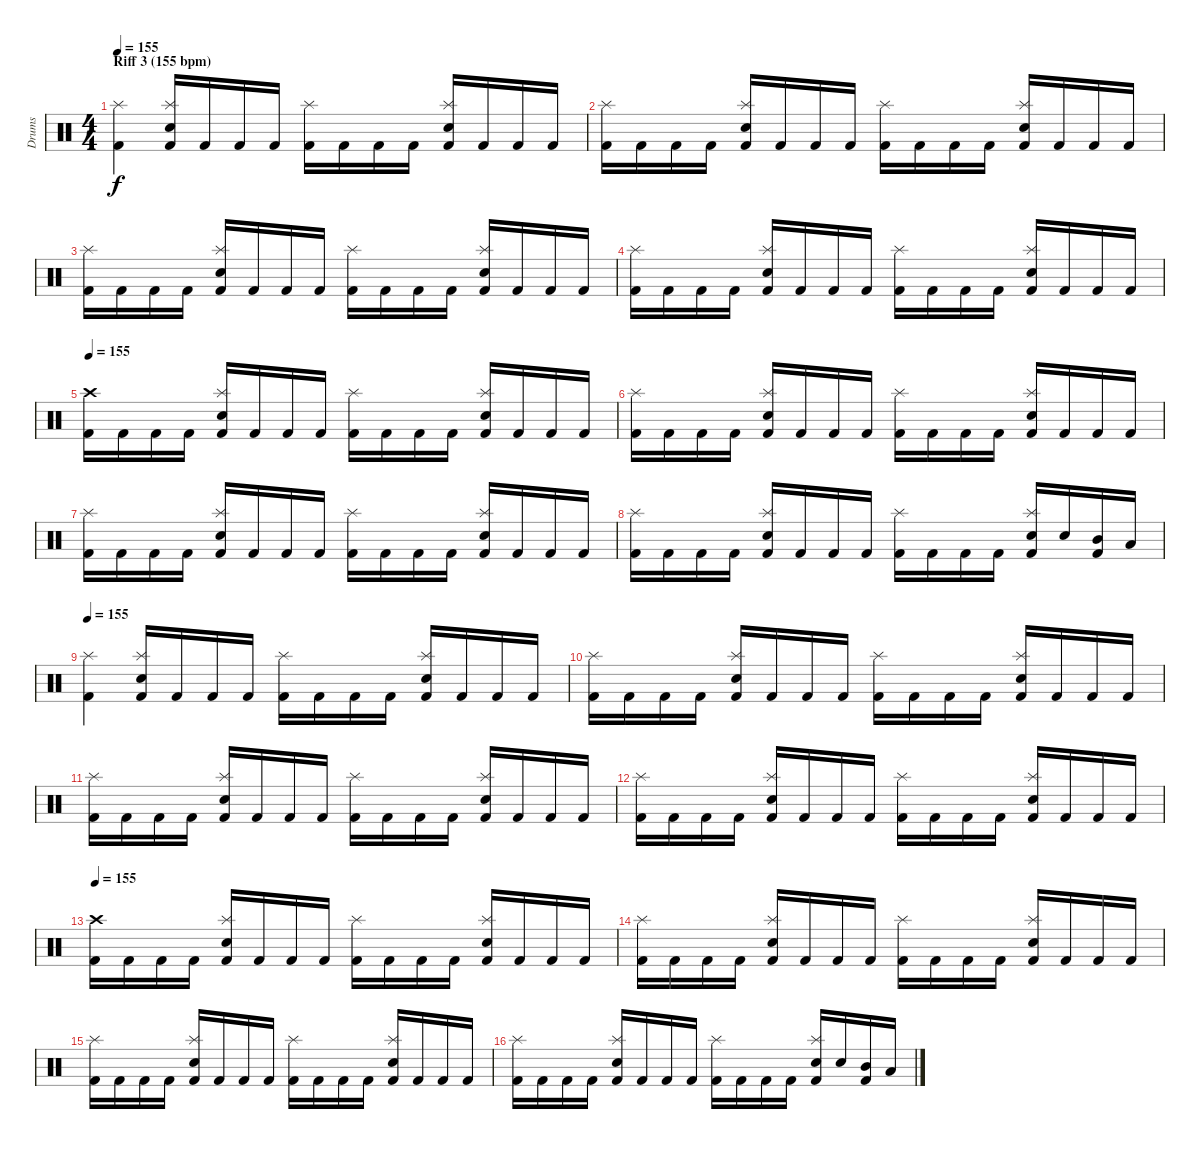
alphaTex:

\track ("Drums" "Drums") {instrument percussion}
\staff {score}
\articulation defaults
\ts (4 4)
\section ("" "Riff 3 (155 bpm)")
\tempo 155
\clef neutral
\ks c
("Kick (hit) 2" "Splash (hit)").4{dy f} ("Kick (hit) 2" "Snare (hit) 2" "Splash (hit)").16 "Kick (hit) 2".16 "Kick (hit) 2".16 "Kick (hit) 2".16 ("Kick (hit) 2" "Splash (hit)").16 "Kick (hit) 2".16 "Kick (hit) 2".16 "Kick (hit) 2".16 ("Kick (hit) 2" "Snare (hit) 2" "Splash (hit)").16 "Kick (hit) 2".16 "Kick (hit) 2".16 "Kick (hit) 2".16 |
("Kick (hit) 2" "Splash (hit)").16 "Kick (hit) 2".16 "Kick (hit) 2".16 "Kick (hit) 2".16 ("Kick (hit) 2" "Snare (hit) 2" "Splash (hit)").16 "Kick (hit) 2".16 "Kick (hit) 2".16 "Kick (hit) 2".16 ("Kick (hit) 2" "Splash (hit)").16 "Kick (hit) 2".16 "Kick (hit) 2".16 "Kick (hit) 2".16 ("Kick (hit) 2" "Snare (hit) 2" "Splash (hit)").16 "Kick (hit) 2".16 "Kick (hit) 2".16 "Kick (hit) 2".16 |
("Kick (hit) 2" "Splash (hit)").16 "Kick (hit) 2".16 "Kick (hit) 2".16 "Kick (hit) 2".16 ("Kick (hit) 2" "Snare (hit) 2" "Splash (hit)").16 "Kick (hit) 2".16 "Kick (hit) 2".16 "Kick (hit) 2".16 ("Kick (hit) 2" "Splash (hit)").16 "Kick (hit) 2".16 "Kick (hit) 2".16 "Kick (hit) 2".16 ("Kick (hit) 2" "Snare (hit) 2" "Splash (hit)").16 "Kick (hit) 2".16 "Kick (hit) 2".16 "Kick (hit) 2".16 |
("Kick (hit) 2" "Splash (hit)").16 "Kick (hit) 2".16 "Kick (hit) 2".16 "Kick (hit) 2".16 ("Kick (hit) 2" "Snare (hit) 2" "Splash (hit)").16 "Kick (hit) 2".16 "Kick (hit) 2".16 "Kick (hit) 2".16 ("Kick (hit) 2" "Splash (hit)").16 "Kick (hit) 2".16 "Kick (hit) 2".16 "Kick (hit) 2".16 ("Kick (hit) 2" "Snare (hit) 2" "Splash (hit)").16 "Kick (hit) 2".16 "Kick (hit) 2".16 "Kick (hit) 2".16 |
\tempo 155
("Kick (hit) 2" "Crash high (hit)").16 "Kick (hit) 2".16 "Kick (hit) 2".16 "Kick (hit) 2".16 ("Kick (hit) 2" "Snare (hit) 2" "Splash (hit)").16 "Kick (hit) 2".16 "Kick (hit) 2".16 "Kick (hit) 2".16 ("Kick (hit) 2" "Splash (hit)").16 "Kick (hit) 2".16 "Kick (hit) 2".16 "Kick (hit) 2".16 ("Kick (hit) 2" "Snare (hit) 2" "Splash (hit)").16 "Kick (hit) 2".16 "Kick (hit) 2".16 "Kick (hit) 2".16 |
("Kick (hit) 2" "Splash (hit)").16 "Kick (hit) 2".16 "Kick (hit) 2".16 "Kick (hit) 2".16 ("Kick (hit) 2" "Snare (hit) 2" "Splash (hit)").16 "Kick (hit) 2".16 "Kick (hit) 2".16 "Kick (hit) 2".16 ("Kick (hit) 2" "Splash (hit)").16 "Kick (hit) 2".16 "Kick (hit) 2".16 "Kick (hit) 2".16 ("Kick (hit) 2" "Snare (hit) 2" "Splash (hit)").16 "Kick (hit) 2".16 "Kick (hit) 2".16 "Kick (hit) 2".16 |
("Kick (hit) 2" "Splash (hit)").16 "Kick (hit) 2".16 "Kick (hit) 2".16 "Kick (hit) 2".16 ("Kick (hit) 2" "Snare (hit) 2" "Splash (hit)").16 "Kick (hit) 2".16 "Kick (hit) 2".16 "Kick (hit) 2".16 ("Kick (hit) 2" "Splash (hit)").16 "Kick (hit) 2".16 "Kick (hit) 2".16 "Kick (hit) 2".16 ("Kick (hit) 2" "Snare (hit) 2" "Splash (hit)").16 "Kick (hit) 2".16 "Kick (hit) 2".16 "Kick (hit) 2".16 |
("Kick (hit) 2" "Splash (hit)").16 "Kick (hit) 2".16 "Kick (hit) 2".16 "Kick (hit) 2".16 ("Kick (hit) 2" "Snare (hit) 2" "Splash (hit)").16 "Kick (hit) 2".16 "Kick (hit) 2".16 "Kick (hit) 2".16 ("Kick (hit) 2" "Splash (hit)").16 "Kick (hit) 2".16 "Kick (hit) 2".16 "Kick (hit) 2".16 ("Kick (hit) 2" "Snare (hit) 2" "Splash (hit)").16 "Snare (hit) 2".16 ("Kick (hit) 2" "Mid Tom (hit)").16 "Low Tom (hit)".16 |
\tempo 155
("Kick (hit) 2" "Splash (hit)").4 ("Kick (hit) 2" "Snare (hit) 2" "Splash (hit)").16 "Kick (hit) 2".16 "Kick (hit) 2".16 "Kick (hit) 2".16 ("Kick (hit) 2" "Splash (hit)").16 "Kick (hit) 2".16 "Kick (hit) 2".16 "Kick (hit) 2".16 ("Kick (hit) 2" "Snare (hit) 2" "Splash (hit)").16 "Kick (hit) 2".16 "Kick (hit) 2".16 "Kick (hit) 2".16 |
("Kick (hit) 2" "Splash (hit)").16 "Kick (hit) 2".16 "Kick (hit) 2".16 "Kick (hit) 2".16 ("Kick (hit) 2" "Snare (hit) 2" "Splash (hit)").16 "Kick (hit) 2".16 "Kick (hit) 2".16 "Kick (hit) 2".16 ("Kick (hit) 2" "Splash (hit)").16 "Kick (hit) 2".16 "Kick (hit) 2".16 "Kick (hit) 2".16 ("Kick (hit) 2" "Snare (hit) 2" "Splash (hit)").16 "Kick (hit) 2".16 "Kick (hit) 2".16 "Kick (hit) 2".16 |
("Kick (hit) 2" "Splash (hit)").16 "Kick (hit) 2".16 "Kick (hit) 2".16 "Kick (hit) 2".16 ("Kick (hit) 2" "Snare (hit) 2" "Splash (hit)").16 "Kick (hit) 2".16 "Kick (hit) 2".16 "Kick (hit) 2".16 ("Kick (hit) 2" "Splash (hit)").16 "Kick (hit) 2".16 "Kick (hit) 2".16 "Kick (hit) 2".16 ("Kick (hit) 2" "Snare (hit) 2" "Splash (hit)").16 "Kick (hit) 2".16 "Kick (hit) 2".16 "Kick (hit) 2".16 |
("Kick (hit) 2" "Splash (hit)").16 "Kick (hit) 2".16 "Kick (hit) 2".16 "Kick (hit) 2".16 ("Kick (hit) 2" "Snare (hit) 2" "Splash (hit)").16 "Kick (hit) 2".16 "Kick (hit) 2".16 "Kick (hit) 2".16 ("Kick (hit) 2" "Splash (hit)").16 "Kick (hit) 2".16 "Kick (hit) 2".16 "Kick (hit) 2".16 ("Kick (hit) 2" "Snare (hit) 2" "Splash (hit)").16 "Kick (hit) 2".16 "Kick (hit) 2".16 "Kick (hit) 2".16 |
\tempo 155
("Kick (hit) 2" "Crash high (hit)").16 "Kick (hit) 2".16 "Kick (hit) 2".16 "Kick (hit) 2".16 ("Kick (hit) 2" "Snare (hit) 2" "Splash (hit)").16 "Kick (hit) 2".16 "Kick (hit) 2".16 "Kick (hit) 2".16 ("Kick (hit) 2" "Splash (hit)").16 "Kick (hit) 2".16 "Kick (hit) 2".16 "Kick (hit) 2".16 ("Kick (hit) 2" "Snare (hit) 2" "Splash (hit)").16 "Kick (hit) 2".16 "Kick (hit) 2".16 "Kick (hit) 2".16 |
("Kick (hit) 2" "Splash (hit)").16 "Kick (hit) 2".16 "Kick (hit) 2".16 "Kick (hit) 2".16 ("Kick (hit) 2" "Snare (hit) 2" "Splash (hit)").16 "Kick (hit) 2".16 "Kick (hit) 2".16 "Kick (hit) 2".16 ("Kick (hit) 2" "Splash (hit)").16 "Kick (hit) 2".16 "Kick (hit) 2".16 "Kick (hit) 2".16 ("Kick (hit) 2" "Snare (hit) 2" "Splash (hit)").16 "Kick (hit) 2".16 "Kick (hit) 2".16 "Kick (hit) 2".16 |
("Kick (hit) 2" "Splash (hit)").16 "Kick (hit) 2".16 "Kick (hit) 2".16 "Kick (hit) 2".16 ("Kick (hit) 2" "Snare (hit) 2" "Splash (hit)").16 "Kick (hit) 2".16 "Kick (hit) 2".16 "Kick (hit) 2".16 ("Kick (hit) 2" "Splash (hit)").16 "Kick (hit) 2".16 "Kick (hit) 2".16 "Kick (hit) 2".16 ("Kick (hit) 2" "Snare (hit) 2" "Splash (hit)").16 "Kick (hit) 2".16 "Kick (hit) 2".16 "Kick (hit) 2".16 |
("Kick (hit) 2" "Splash (hit)").16 "Kick (hit) 2".16 "Kick (hit) 2".16 "Kick (hit) 2".16 ("Kick (hit) 2" "Snare (hit) 2" "Splash (hit)").16 "Kick (hit) 2".16 "Kick (hit) 2".16 "Kick (hit) 2".16 ("Kick (hit) 2" "Splash (hit)").16 "Kick (hit) 2".16 "Kick (hit) 2".16 "Kick (hit) 2".16 ("Kick (hit) 2" "Snare (hit) 2" "Splash (hit)").16 "Snare (hit) 2".16 ("Kick (hit) 2" "Mid Tom (hit)").16 "Low Tom (hit)".16
